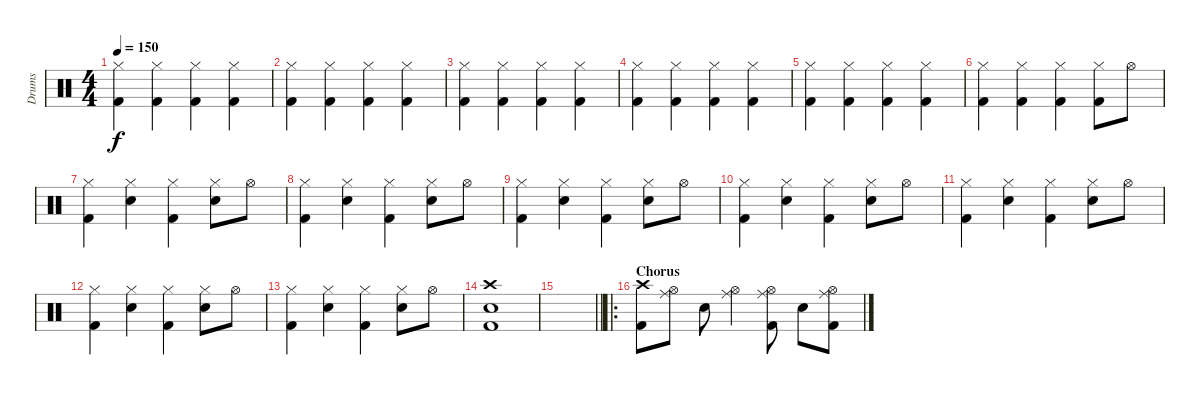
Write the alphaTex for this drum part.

\track ("Drums" "Drums") {instrument percussion}
\staff {score}
\articulation defaults
\ts (4 4)
\tempo 150
\clef neutral
\ks c
("Hi-Hat (closed)" "Kick (hit) 2").4{dy f} ("Hi-Hat (closed)" "Kick (hit) 2").4 ("Hi-Hat (closed)" "Kick (hit) 2").4 ("Hi-Hat (closed)" "Kick (hit) 2").4 |
("Hi-Hat (closed)" "Kick (hit) 2").4 ("Hi-Hat (closed)" "Kick (hit) 2").4 ("Hi-Hat (closed)" "Kick (hit) 2").4 ("Hi-Hat (closed)" "Kick (hit) 2").4 |
("Hi-Hat (closed)" "Kick (hit) 2").4 ("Hi-Hat (closed)" "Kick (hit) 2").4 ("Hi-Hat (closed)" "Kick (hit) 2").4 ("Hi-Hat (closed)" "Kick (hit) 2").4 |
("Hi-Hat (closed)" "Kick (hit) 2").4 ("Hi-Hat (closed)" "Kick (hit) 2").4 ("Hi-Hat (closed)" "Kick (hit) 2").4 ("Hi-Hat (closed)" "Kick (hit) 2").4 |
("Hi-Hat (closed)" "Kick (hit) 2").4 ("Hi-Hat (closed)" "Kick (hit) 2").4 ("Hi-Hat (closed)" "Kick (hit) 2").4 ("Hi-Hat (closed)" "Kick (hit) 2").4 |
("Hi-Hat (closed)" "Kick (hit) 2").4 ("Hi-Hat (closed)" "Kick (hit) 2").4 ("Hi-Hat (closed)" "Kick (hit) 2").4 ("Hi-Hat (closed)" "Kick (hit) 2").8 "Hi-Hat (open)".8 |
("Hi-Hat (closed)" "Kick (hit) 2").4 ("Hi-Hat (closed)" "Electric Snare (hit)").4 ("Hi-Hat (closed)" "Kick (hit) 2").4 ("Hi-Hat (closed)" "Electric Snare (hit)").8 "Hi-Hat (open)".8 |
("Hi-Hat (closed)" "Kick (hit) 2").4 ("Hi-Hat (closed)" "Electric Snare (hit)").4 ("Hi-Hat (closed)" "Kick (hit) 2").4 ("Hi-Hat (closed)" "Electric Snare (hit)").8 "Hi-Hat (open)".8 |
("Hi-Hat (closed)" "Kick (hit) 2").4 ("Hi-Hat (closed)" "Electric Snare (hit)").4 ("Hi-Hat (closed)" "Kick (hit) 2").4 ("Hi-Hat (closed)" "Electric Snare (hit)").8 "Hi-Hat (open)".8 |
("Hi-Hat (closed)" "Kick (hit) 2").4 ("Hi-Hat (closed)" "Electric Snare (hit)").4 ("Hi-Hat (closed)" "Kick (hit) 2").4 ("Hi-Hat (closed)" "Electric Snare (hit)").8 "Hi-Hat (open)".8 |
("Hi-Hat (closed)" "Kick (hit) 2").4 ("Hi-Hat (closed)" "Electric Snare (hit)").4 ("Hi-Hat (closed)" "Kick (hit) 2").4 ("Hi-Hat (closed)" "Electric Snare (hit)").8 "Hi-Hat (open)".8 |
("Hi-Hat (closed)" "Kick (hit) 2").4 ("Hi-Hat (closed)" "Electric Snare (hit)").4 ("Hi-Hat (closed)" "Kick (hit) 2").4 ("Hi-Hat (closed)" "Electric Snare (hit)").8 "Hi-Hat (open)".8 |
("Hi-Hat (closed)" "Kick (hit) 2").4 ("Hi-Hat (closed)" "Electric Snare (hit)").4 ("Hi-Hat (closed)" "Kick (hit) 2").4 ("Hi-Hat (closed)" "Electric Snare (hit)").8 "Hi-Hat (open)".8 |
("Crash high (hit)" "Electric Snare (hit)" "Kick (hit) 2").1 |
\barLineRight lightlight
|
\ro
\section ("" "Chorus")
("Crash high (hit)" "Kick (hit) 2").8 ("Ride (middle)" "Hi-Hat (open)").8 "Electric Snare (hit)".8 ("Ride (middle)" "Hi-Hat (open)").4 ("Ride (middle)" "Hi-Hat (open)" "Kick (hit) 2").8 "Electric Snare (hit)".8 ("Ride (middle)" "Hi-Hat (open)" "Kick (hit) 2").8
